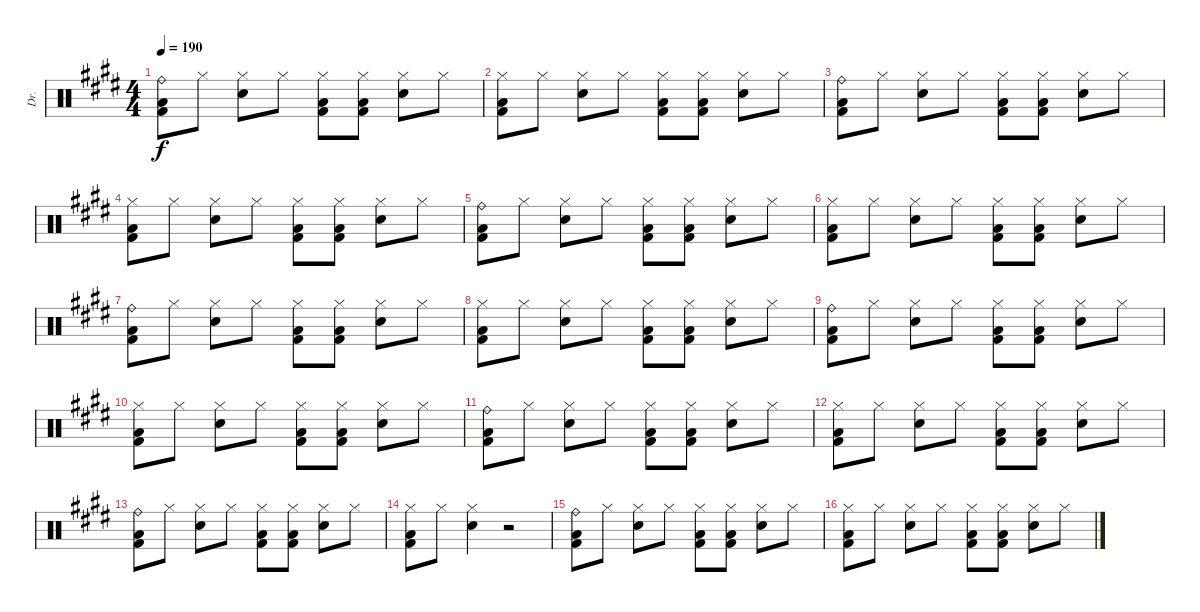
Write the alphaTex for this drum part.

\track ("Dr." "Dr.") {instrument percussion}
\staff {score}
\articulation defaults
\ts (4 4)
\tempo 190
\clef neutral
\ks e
("Ride (bell)" "Low Floor Tom (hit)" "Kick (hit) 2").8{dy f} "Hi-Hat (closed)".8 ("Electric Snare (hit)" "Hi-Hat (closed)").8 "Hi-Hat (closed)".8 ("Hi-Hat (closed)" "Low Floor Tom (hit)" "Kick (hit) 2").8 ("Hi-Hat (closed)" "Low Floor Tom (hit)" "Kick (hit) 2").8 ("Electric Snare (hit)" "Hi-Hat (closed)").8 "Hi-Hat (closed)".8 |
("Hi-Hat (closed)" "Low Floor Tom (hit)" "Kick (hit) 2").8 "Hi-Hat (closed)".8 ("Electric Snare (hit)" "Hi-Hat (closed)").8 "Hi-Hat (closed)".8 ("Hi-Hat (closed)" "Low Floor Tom (hit)" "Kick (hit) 2").8 ("Hi-Hat (closed)" "Low Floor Tom (hit)" "Kick (hit) 2").8 ("Electric Snare (hit)" "Hi-Hat (closed)").8 "Hi-Hat (closed)".8 |
("Ride (bell)" "Low Floor Tom (hit)" "Kick (hit) 2").8 "Hi-Hat (closed)".8 ("Electric Snare (hit)" "Hi-Hat (closed)").8 "Hi-Hat (closed)".8 ("Hi-Hat (closed)" "Low Floor Tom (hit)" "Kick (hit) 2").8 ("Hi-Hat (closed)" "Low Floor Tom (hit)" "Kick (hit) 2").8 ("Electric Snare (hit)" "Hi-Hat (closed)").8 "Hi-Hat (closed)".8 |
("Hi-Hat (closed)" "Low Floor Tom (hit)" "Kick (hit) 2").8 "Hi-Hat (closed)".8 ("Electric Snare (hit)" "Hi-Hat (closed)").8 "Hi-Hat (closed)".8 ("Hi-Hat (closed)" "Low Floor Tom (hit)" "Kick (hit) 2").8 ("Hi-Hat (closed)" "Low Floor Tom (hit)" "Kick (hit) 2").8 ("Electric Snare (hit)" "Hi-Hat (closed)").8 "Hi-Hat (closed)".8 |
("Ride (bell)" "Low Floor Tom (hit)" "Kick (hit) 2").8 "Hi-Hat (closed)".8 ("Electric Snare (hit)" "Hi-Hat (closed)").8 "Hi-Hat (closed)".8 ("Hi-Hat (closed)" "Low Floor Tom (hit)" "Kick (hit) 2").8 ("Hi-Hat (closed)" "Low Floor Tom (hit)" "Kick (hit) 2").8 ("Electric Snare (hit)" "Hi-Hat (closed)").8 "Hi-Hat (closed)".8 |
("Hi-Hat (closed)" "Low Floor Tom (hit)" "Kick (hit) 2").8 "Hi-Hat (closed)".8 ("Electric Snare (hit)" "Hi-Hat (closed)").8 "Hi-Hat (closed)".8 ("Hi-Hat (closed)" "Low Floor Tom (hit)" "Kick (hit) 2").8 ("Hi-Hat (closed)" "Low Floor Tom (hit)" "Kick (hit) 2").8 ("Electric Snare (hit)" "Hi-Hat (closed)").8 "Hi-Hat (closed)".8 |
("Ride (bell)" "Low Floor Tom (hit)" "Kick (hit) 2").8 "Hi-Hat (closed)".8 ("Electric Snare (hit)" "Hi-Hat (closed)").8 "Hi-Hat (closed)".8 ("Hi-Hat (closed)" "Low Floor Tom (hit)" "Kick (hit) 2").8 ("Hi-Hat (closed)" "Low Floor Tom (hit)" "Kick (hit) 2").8 ("Electric Snare (hit)" "Hi-Hat (closed)").8 "Hi-Hat (closed)".8 |
("Hi-Hat (closed)" "Low Floor Tom (hit)" "Kick (hit) 2").8 "Hi-Hat (closed)".8 ("Electric Snare (hit)" "Hi-Hat (closed)").8 "Hi-Hat (closed)".8 ("Hi-Hat (closed)" "Low Floor Tom (hit)" "Kick (hit) 2").8 ("Hi-Hat (closed)" "Low Floor Tom (hit)" "Kick (hit) 2").8 ("Electric Snare (hit)" "Hi-Hat (closed)").8 "Hi-Hat (closed)".8 |
("Ride (bell)" "Low Floor Tom (hit)" "Kick (hit) 2").8 "Hi-Hat (closed)".8 ("Electric Snare (hit)" "Hi-Hat (closed)").8 "Hi-Hat (closed)".8 ("Hi-Hat (closed)" "Low Floor Tom (hit)" "Kick (hit) 2").8 ("Hi-Hat (closed)" "Low Floor Tom (hit)" "Kick (hit) 2").8 ("Electric Snare (hit)" "Hi-Hat (closed)").8 "Hi-Hat (closed)".8 |
("Hi-Hat (closed)" "Low Floor Tom (hit)" "Kick (hit) 2").8 "Hi-Hat (closed)".8 ("Electric Snare (hit)" "Hi-Hat (closed)").8 "Hi-Hat (closed)".8 ("Hi-Hat (closed)" "Low Floor Tom (hit)" "Kick (hit) 2").8 ("Hi-Hat (closed)" "Low Floor Tom (hit)" "Kick (hit) 2").8 ("Electric Snare (hit)" "Hi-Hat (closed)").8 "Hi-Hat (closed)".8 |
("Ride (bell)" "Low Floor Tom (hit)" "Kick (hit) 2").8 "Hi-Hat (closed)".8 ("Electric Snare (hit)" "Hi-Hat (closed)").8 "Hi-Hat (closed)".8 ("Hi-Hat (closed)" "Low Floor Tom (hit)" "Kick (hit) 2").8 ("Hi-Hat (closed)" "Low Floor Tom (hit)" "Kick (hit) 2").8 ("Electric Snare (hit)" "Hi-Hat (closed)").8 "Hi-Hat (closed)".8 |
("Hi-Hat (closed)" "Low Floor Tom (hit)" "Kick (hit) 2").8 "Hi-Hat (closed)".8 ("Electric Snare (hit)" "Hi-Hat (closed)").8 "Hi-Hat (closed)".8 ("Hi-Hat (closed)" "Low Floor Tom (hit)" "Kick (hit) 2").8 ("Hi-Hat (closed)" "Low Floor Tom (hit)" "Kick (hit) 2").8 ("Electric Snare (hit)" "Hi-Hat (closed)").8 "Hi-Hat (closed)".8 |
("Ride (bell)" "Low Floor Tom (hit)" "Kick (hit) 2").8 "Hi-Hat (closed)".8 ("Electric Snare (hit)" "Hi-Hat (closed)").8 "Hi-Hat (closed)".8 ("Hi-Hat (closed)" "Low Floor Tom (hit)" "Kick (hit) 2").8 ("Hi-Hat (closed)" "Low Floor Tom (hit)" "Kick (hit) 2").8 ("Electric Snare (hit)" "Hi-Hat (closed)").8 "Hi-Hat (closed)".8 |
("Hi-Hat (closed)" "Low Floor Tom (hit)" "Kick (hit) 2").8 "Hi-Hat (closed)".8 ("Electric Snare (hit)" "Hi-Hat (closed)").4 r.2 |
("Ride (bell)" "Low Floor Tom (hit)" "Kick (hit) 2").8 "Hi-Hat (closed)".8 ("Electric Snare (hit)" "Hi-Hat (closed)").8 "Hi-Hat (closed)".8 ("Hi-Hat (closed)" "Low Floor Tom (hit)" "Kick (hit) 2").8 ("Hi-Hat (closed)" "Low Floor Tom (hit)" "Kick (hit) 2").8 ("Electric Snare (hit)" "Hi-Hat (closed)").8 "Hi-Hat (closed)".8 |
("Hi-Hat (closed)" "Low Floor Tom (hit)" "Kick (hit) 2").8 "Hi-Hat (closed)".8 ("Electric Snare (hit)" "Hi-Hat (closed)").8 "Hi-Hat (closed)".8 ("Hi-Hat (closed)" "Low Floor Tom (hit)" "Kick (hit) 2").8 ("Hi-Hat (closed)" "Low Floor Tom (hit)" "Kick (hit) 2").8 ("Electric Snare (hit)" "Hi-Hat (closed)").8 "Hi-Hat (closed)".8
